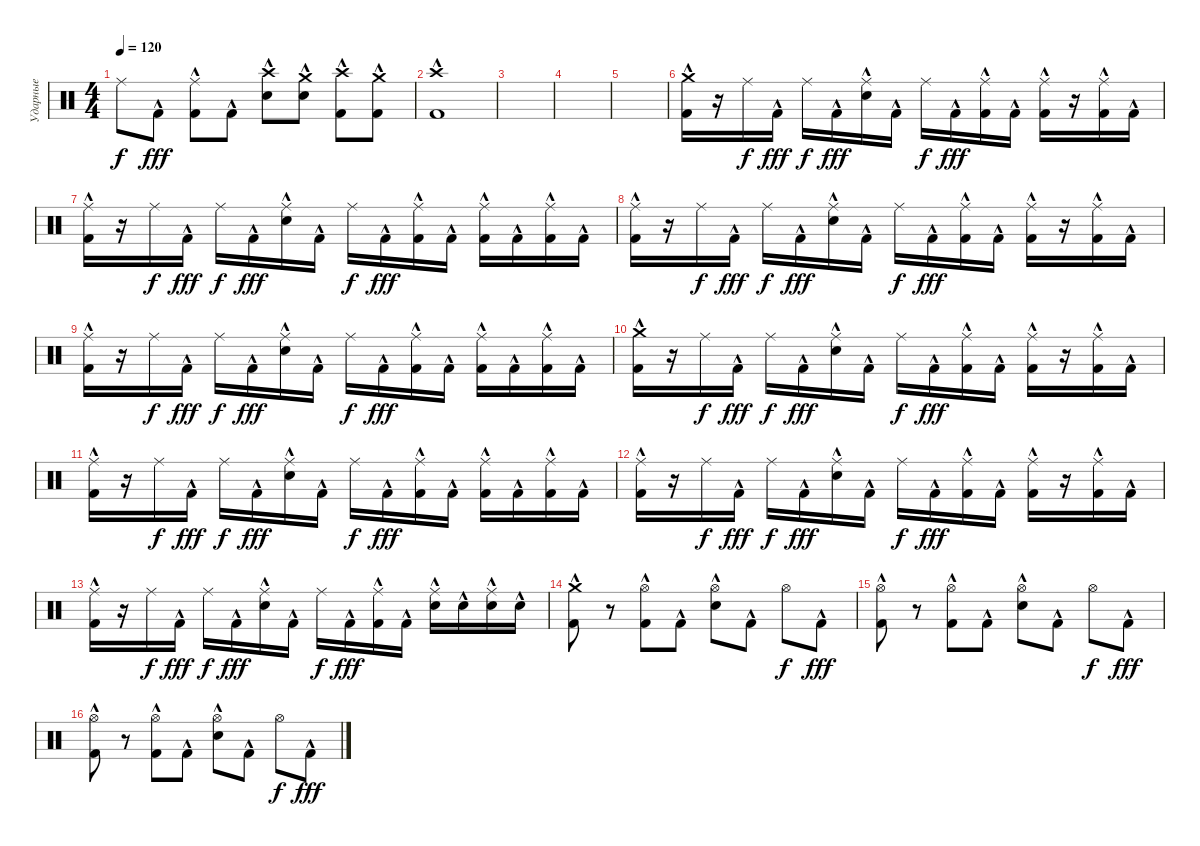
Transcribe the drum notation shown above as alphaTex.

\track ("Ударные" "Ударные") {instrument percussion}
\staff
\articulation defaults
\ts (4 4)
\tempo 120
\clef neutral
\ks c "Ride (middle)".8{dy f} "Kick (hit) 2"{hac}.8{dy fff}
("Ride (middle)" "Kick (hit) 2"{hac}).8 "Kick (hit) 2"{hac}.8 ("Crash high (hit)" "Snare (hit) 2"{hac}).8 ("Crash medium (hit)" "Snare (hit) 2"{hac}).8 ("Crash high (hit)" "Kick (hit) 2"{hac}).8 ("Crash medium (hit)" "Kick (hit) 2"{hac}).8 |
("Crash high (hit)" "Kick (hit) 2"{hac}).1 |
|
|
|
("Crash medium (hit)" "Kick (hit) 2"{hac}).16 r.16 "Ride (middle)".16{dy f} "Kick (hit) 2"{hac}.16{dy fff} "Ride (middle)".16{dy f} "Kick (hit) 2"{hac}.16{dy fff} ("Ride (middle)" "Snare (hit) 2"{hac}).16 "Kick (hit) 2"{hac}.16 "Ride (middle)".16{dy f} "Kick (hit) 2"{hac}.16{dy fff} ("Ride (middle)" "Kick (hit) 2"{hac}).16 "Kick (hit) 2"{hac}.16 ("Ride (middle)" "Kick (hit) 2"{hac}).16 r.16 ("Ride (middle)" "Kick (hit) 2"{hac}).16 "Kick (hit) 2"{hac}.16 |
("Ride (middle)" "Kick (hit) 2"{hac}).16 r.16 "Ride (middle)".16{dy f} "Kick (hit) 2"{hac}.16{dy fff} "Ride (middle)".16{dy f} "Kick (hit) 2"{hac}.16{dy fff} ("Ride (middle)" "Snare (hit) 2"{hac}).16 "Kick (hit) 2"{hac}.16 "Ride (middle)".16{dy f} "Kick (hit) 2"{hac}.16{dy fff} ("Ride (middle)" "Kick (hit) 2"{hac}).16 "Kick (hit) 2"{hac}.16 ("Ride (middle)" "Kick (hit) 2"{hac}).16 "Kick (hit) 2"{hac}.16 ("Ride (middle)" "Kick (hit) 2"{hac}).16 "Kick (hit) 2"{hac}.16 |
("Ride (middle)" "Kick (hit) 2"{hac}).16 r.16 "Ride (middle)".16{dy f} "Kick (hit) 2"{hac}.16{dy fff} "Ride (middle)".16{dy f} "Kick (hit) 2"{hac}.16{dy fff} ("Ride (middle)" "Snare (hit) 2"{hac}).16 "Kick (hit) 2"{hac}.16 "Ride (middle)".16{dy f} "Kick (hit) 2"{hac}.16{dy fff} ("Ride (middle)" "Kick (hit) 2"{hac}).16 "Kick (hit) 2"{hac}.16 ("Ride (middle)" "Kick (hit) 2"{hac}).16 r.16 ("Ride (middle)" "Kick (hit) 2"{hac}).16 "Kick (hit) 2"{hac}.16 |
("Ride (middle)" "Kick (hit) 2"{hac}).16 r.16 "Ride (middle)".16{dy f} "Kick (hit) 2"{hac}.16{dy fff} "Ride (middle)".16{dy f} "Kick (hit) 2"{hac}.16{dy fff} ("Ride (middle)" "Snare (hit) 2"{hac}).16 "Kick (hit) 2"{hac}.16 "Ride (middle)".16{dy f} "Kick (hit) 2"{hac}.16{dy fff} ("Ride (middle)" "Kick (hit) 2"{hac}).16 "Kick (hit) 2"{hac}.16 ("Ride (middle)" "Kick (hit) 2"{hac}).16 "Kick (hit) 2"{hac}.16 ("Ride (middle)" "Kick (hit) 2"{hac}).16 "Kick (hit) 2"{hac}.16 |
("Crash medium (hit)" "Kick (hit) 2"{hac}).16 r.16 "Ride (middle)".16{dy f} "Kick (hit) 2"{hac}.16{dy fff} "Ride (middle)".16{dy f} "Kick (hit) 2"{hac}.16{dy fff} ("Ride (middle)" "Snare (hit) 2"{hac}).16 "Kick (hit) 2"{hac}.16 "Ride (middle)".16{dy f} "Kick (hit) 2"{hac}.16{dy fff} ("Ride (middle)" "Kick (hit) 2"{hac}).16 "Kick (hit) 2"{hac}.16 ("Ride (middle)" "Kick (hit) 2"{hac}).16 r.16 ("Ride (middle)" "Kick (hit) 2"{hac}).16 "Kick (hit) 2"{hac}.16 |
("Ride (middle)" "Kick (hit) 2"{hac}).16 r.16 "Ride (middle)".16{dy f} "Kick (hit) 2"{hac}.16{dy fff} "Ride (middle)".16{dy f} "Kick (hit) 2"{hac}.16{dy fff} ("Ride (middle)" "Snare (hit) 2"{hac}).16 "Kick (hit) 2"{hac}.16 "Ride (middle)".16{dy f} "Kick (hit) 2"{hac}.16{dy fff} ("Ride (middle)" "Kick (hit) 2"{hac}).16 "Kick (hit) 2"{hac}.16 ("Ride (middle)" "Kick (hit) 2"{hac}).16 "Kick (hit) 2"{hac}.16 ("Ride (middle)" "Kick (hit) 2"{hac}).16 "Kick (hit) 2"{hac}.16 |
("Ride (middle)" "Kick (hit) 2"{hac}).16 r.16 "Ride (middle)".16{dy f} "Kick (hit) 2"{hac}.16{dy fff} "Ride (middle)".16{dy f} "Kick (hit) 2"{hac}.16{dy fff} ("Ride (middle)" "Snare (hit) 2"{hac}).16 "Kick (hit) 2"{hac}.16 "Ride (middle)".16{dy f} "Kick (hit) 2"{hac}.16{dy fff} ("Ride (middle)" "Kick (hit) 2"{hac}).16 "Kick (hit) 2"{hac}.16 ("Ride (middle)" "Kick (hit) 2"{hac}).16 r.16 ("Ride (middle)" "Kick (hit) 2"{hac}).16 "Kick (hit) 2"{hac}.16 |
("Ride (middle)" "Kick (hit) 2"{hac}).16 r.16 "Ride (middle)".16{dy f} "Kick (hit) 2"{hac}.16{dy fff} "Ride (middle)".16{dy f} "Kick (hit) 2"{hac}.16{dy fff} ("Ride (middle)" "Snare (hit) 2"{hac}).16 "Kick (hit) 2"{hac}.16 "Ride (middle)".16{dy f} "Kick (hit) 2"{hac}.16{dy fff} ("Ride (middle)" "Kick (hit) 2"{hac}).16 "Kick (hit) 2"{hac}.16 ("Ride (middle)" "Snare (hit) 2"{hac}).16 "Snare (hit) 2"{hac}.16 ("Ride (middle)" "Snare (hit) 2"{hac}).16 "Snare (hit) 2"{hac}.16 |
("Crash medium (hit)" "Kick (hit) 2"{hac}).8 r.8 ("Hi-Hat (open)" "Kick (hit) 2"{hac}).8 "Kick (hit) 2"{hac}.8 ("Hi-Hat (open)" "Snare (hit) 2"{hac}).8 "Kick (hit) 2"{hac}.8 "Hi-Hat (open)".8{dy f} "Kick (hit) 2"{hac}.8{dy fff} |
("Hi-Hat (open)" "Kick (hit) 2"{hac}).8 r.8 ("Hi-Hat (open)" "Kick (hit) 2"{hac}).8 "Kick (hit) 2"{hac}.8 ("Hi-Hat (open)" "Snare (hit) 2"{hac}).8 "Kick (hit) 2"{hac}.8 "Hi-Hat (open)".8{dy f} "Kick (hit) 2"{hac}.8{dy fff} |
("Hi-Hat (open)" "Kick (hit) 2"{hac}).8 r.8 ("Hi-Hat (open)" "Kick (hit) 2"{hac}).8 "Kick (hit) 2"{hac}.8 ("Hi-Hat (open)" "Snare (hit) 2"{hac}).8 "Kick (hit) 2"{hac}.8 "Hi-Hat (open)".8{dy f} "Kick (hit) 2"{hac}.8{dy fff}
